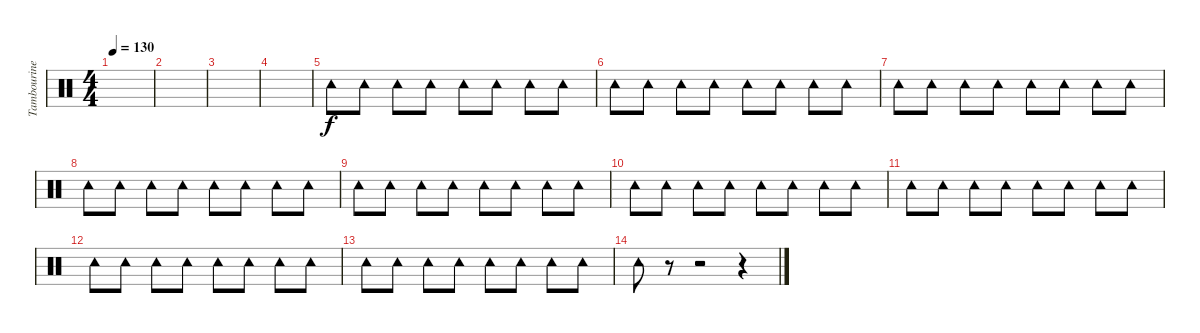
\track ("Tambourine" "Tambourine") {instrument percussion}
\staff {score}
\articulation defaults
\ts (4 4)
\tempo 130
\clef neutral
\ks c
|
|
|
|
"Tambourine (hit)".8 "Tambourine (hit)".8 "Tambourine (hit)".8 "Tambourine (hit)".8 "Tambourine (hit)".8 "Tambourine (hit)".8 "Tambourine (hit)".8 "Tambourine (hit)".8 |
"Tambourine (hit)".8 "Tambourine (hit)".8 "Tambourine (hit)".8 "Tambourine (hit)".8 "Tambourine (hit)".8 "Tambourine (hit)".8 "Tambourine (hit)".8 "Tambourine (hit)".8 |
"Tambourine (hit)".8 "Tambourine (hit)".8 "Tambourine (hit)".8 "Tambourine (hit)".8 "Tambourine (hit)".8 "Tambourine (hit)".8 "Tambourine (hit)".8 "Tambourine (hit)".8 |
"Tambourine (hit)".8 "Tambourine (hit)".8 "Tambourine (hit)".8 "Tambourine (hit)".8 "Tambourine (hit)".8 "Tambourine (hit)".8 "Tambourine (hit)".8 "Tambourine (hit)".8 |
"Tambourine (hit)".8 "Tambourine (hit)".8 "Tambourine (hit)".8 "Tambourine (hit)".8 "Tambourine (hit)".8 "Tambourine (hit)".8 "Tambourine (hit)".8 "Tambourine (hit)".8 |
"Tambourine (hit)".8 "Tambourine (hit)".8 "Tambourine (hit)".8 "Tambourine (hit)".8 "Tambourine (hit)".8 "Tambourine (hit)".8 "Tambourine (hit)".8 "Tambourine (hit)".8 |
"Tambourine (hit)".8 "Tambourine (hit)".8 "Tambourine (hit)".8 "Tambourine (hit)".8 "Tambourine (hit)".8 "Tambourine (hit)".8 "Tambourine (hit)".8 "Tambourine (hit)".8 |
"Tambourine (hit)".8 "Tambourine (hit)".8 "Tambourine (hit)".8 "Tambourine (hit)".8 "Tambourine (hit)".8 "Tambourine (hit)".8 "Tambourine (hit)".8 "Tambourine (hit)".8 |
"Tambourine (hit)".8 "Tambourine (hit)".8 "Tambourine (hit)".8 "Tambourine (hit)".8 "Tambourine (hit)".8 "Tambourine (hit)".8 "Tambourine (hit)".8 "Tambourine (hit)".8 |
"Tambourine (hit)".8 r.8 r.2 r.4
